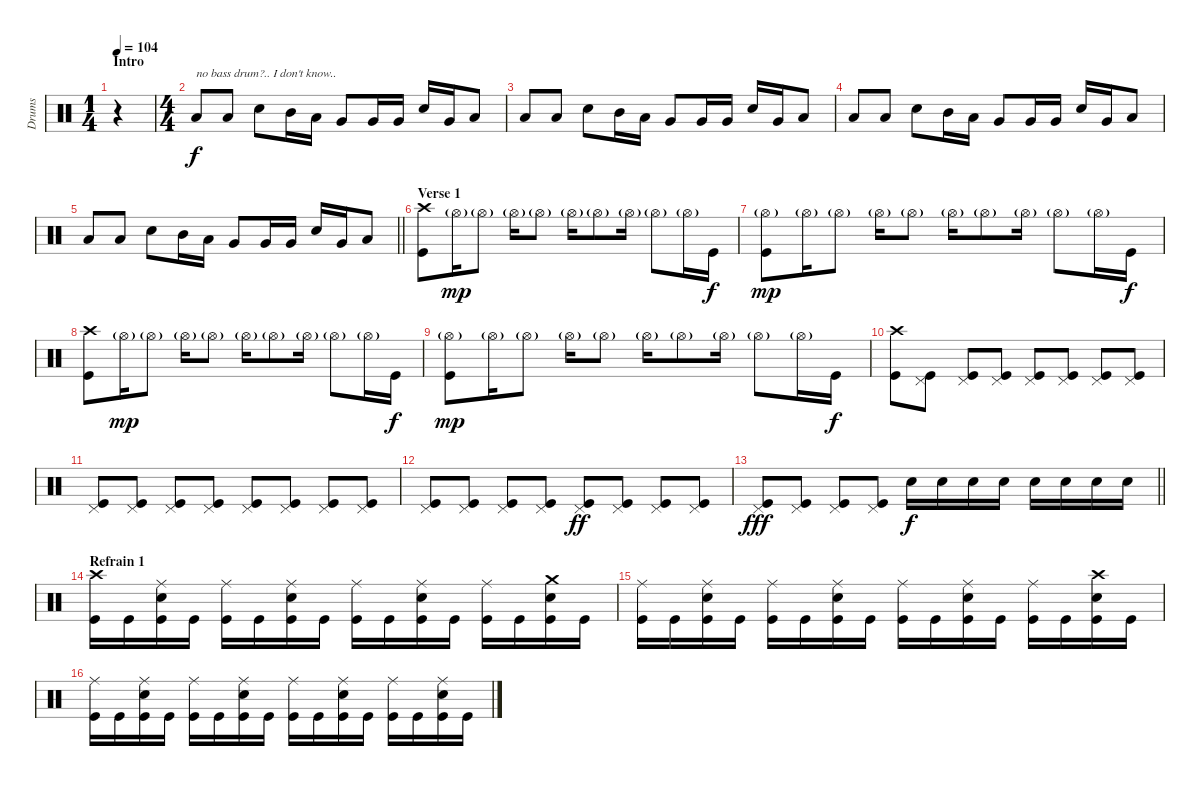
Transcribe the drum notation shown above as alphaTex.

\track ("Drums" "Drums") {instrument percussion}
\staff {score}
\articulation defaults
\ts (1 4)
\section ("" "Intro")
\tempo 104
\clef neutral
\ks c
r.4{dy f} |
\ts (4 4)
"Low Tom (hit)".8{txt "no bass drum?.. I don't know.."} "Low Tom (hit)".8 "Electric Snare (hit)".8 "Mid Tom (hit)".16 "Low Tom (hit)".16 "Very Low Tom (hit)".8 "Very Low Tom (hit)".16 "Very Low Tom (hit)".16 "Electric Snare (hit)".16 "Very Low Tom (hit)".16 "Low Floor Tom (hit)".8 |
"Low Tom (hit)".8 "Low Tom (hit)".8 "Electric Snare (hit)".8 "Mid Tom (hit)".16 "Low Tom (hit)".16 "Very Low Tom (hit)".8 "Very Low Tom (hit)".16 "Very Low Tom (hit)".16 "Electric Snare (hit)".16 "Very Low Tom (hit)".16 "Low Floor Tom (hit)".8 |
"Low Tom (hit)".8 "Low Tom (hit)".8 "Electric Snare (hit)".8 "Mid Tom (hit)".16 "Low Tom (hit)".16 "Very Low Tom (hit)".8 "Very Low Tom (hit)".16 "Very Low Tom (hit)".16 "Electric Snare (hit)".16 "Very Low Tom (hit)".16 "Low Floor Tom (hit)".8 |
\barLineRight lightlight "Low Tom (hit)".8 "Low Tom (hit)".8 "Electric Snare (hit)".8 "Mid Tom (hit)".16 "Low Tom (hit)".16 "Very Low Tom (hit)".8 "Very Low Tom (hit)".16 "Very Low Tom (hit)".16 "Electric Snare (hit)".16 "Very Low Tom (hit)".16 "Low Floor Tom (hit)".8
|
\section ("" "Verse 1")
("Crash high (hit)" "Kick (hit)").8 "Hi-Hat (open)"{g}.16{dy mp} "Hi-Hat (open)"{g}.8 "Hi-Hat (open)"{g}.16 "Hi-Hat (open)"{g}.8 "Hi-Hat (open)"{g}.16 "Hi-Hat (open)"{g}.8 "Hi-Hat (open)"{g}.16 "Hi-Hat (open)"{g}.8 "Hi-Hat (open)"{g}.16 "Kick (hit)".16{dy f} |
("Hi-Hat (open)"{g} "Kick (hit)").8{dy mp} "Hi-Hat (open)"{g}.16 "Hi-Hat (open)"{g}.8 "Hi-Hat (open)"{g}.16 "Hi-Hat (open)"{g}.8 "Hi-Hat (open)"{g}.16 "Hi-Hat (open)"{g}.8 "Hi-Hat (open)"{g}.16 "Hi-Hat (open)"{g}.8 "Hi-Hat (open)"{g}.16 "Kick (hit)".16{dy f} |
("Crash high (hit)" "Kick (hit)").8 "Hi-Hat (open)"{g}.16{dy mp} "Hi-Hat (open)"{g}.8 "Hi-Hat (open)"{g}.16 "Hi-Hat (open)"{g}.8 "Hi-Hat (open)"{g}.16 "Hi-Hat (open)"{g}.8 "Hi-Hat (open)"{g}.16 "Hi-Hat (open)"{g}.8 "Hi-Hat (open)"{g}.16 "Kick (hit)".16{dy f} |
("Hi-Hat (open)"{g} "Kick (hit)").8{dy mp} "Hi-Hat (open)"{g}.16 "Hi-Hat (open)"{g}.8 "Hi-Hat (open)"{g}.16 "Hi-Hat (open)"{g}.8 "Hi-Hat (open)"{g}.16 "Hi-Hat (open)"{g}.8 "Hi-Hat (open)"{g}.16 "Hi-Hat (open)"{g}.8 "Hi-Hat (open)"{g}.16 "Kick (hit)".16{dy f} |
("Crash high (hit)" "Kick (hit)").8 ("Pedal Hi-Hat (hit)" "Kick (hit)").8 ("Pedal Hi-Hat (hit)" "Kick (hit)").8 ("Pedal Hi-Hat (hit)" "Kick (hit)").8 ("Pedal Hi-Hat (hit)" "Kick (hit)").8 ("Pedal Hi-Hat (hit)" "Kick (hit)").8 ("Pedal Hi-Hat (hit)" "Kick (hit)").8 ("Pedal Hi-Hat (hit)" "Kick (hit)").8 |
("Pedal Hi-Hat (hit)" "Kick (hit)").8 ("Pedal Hi-Hat (hit)" "Kick (hit)").8 ("Pedal Hi-Hat (hit)" "Kick (hit)").8 ("Pedal Hi-Hat (hit)" "Kick (hit)").8 ("Pedal Hi-Hat (hit)" "Kick (hit)").8 ("Pedal Hi-Hat (hit)" "Kick (hit)").8 ("Pedal Hi-Hat (hit)" "Kick (hit)").8 ("Pedal Hi-Hat (hit)" "Kick (hit)").8 |
("Pedal Hi-Hat (hit)" "Kick (hit)").8 ("Pedal Hi-Hat (hit)" "Kick (hit)").8 ("Pedal Hi-Hat (hit)" "Kick (hit)").8 ("Pedal Hi-Hat (hit)" "Kick (hit)").8 ("Pedal Hi-Hat (hit)" "Kick (hit)").8{dy ff} ("Pedal Hi-Hat (hit)" "Kick (hit)").8 ("Pedal Hi-Hat (hit)" "Kick (hit)").8 ("Pedal Hi-Hat (hit)" "Kick (hit)").8 |
\barLineRight lightlight
("Pedal Hi-Hat (hit)" "Kick (hit)").8{dy fff} ("Pedal Hi-Hat (hit)" "Kick (hit)").8 ("Pedal Hi-Hat (hit)" "Kick (hit)").8 ("Pedal Hi-Hat (hit)" "Kick (hit)").8 "Electric Snare (hit)".16{dy f} "Electric Snare (hit)".16 "Electric Snare (hit)".16 "Electric Snare (hit)".16 "Electric Snare (hit)".16 "Electric Snare (hit)".16 "Electric Snare (hit)".16 "Electric Snare (hit)".16 |
\section ("" "Refrain 1")
("Crash high (hit)" "Kick (hit)").16 "Kick (hit)".16 ("Ride (middle)" "Electric Snare (hit)" "Kick (hit)").16 "Kick (hit)".16 ("Ride (middle)" "Kick (hit)").16 "Kick (hit)".16 ("Ride (middle)" "Electric Snare (hit)" "Kick (hit)").16 "Kick (hit)".16 ("Ride (middle)" "Kick (hit)").16 "Kick (hit)".16 ("Ride (middle)" "Electric Snare (hit)" "Kick (hit)").16 "Kick (hit)".16 ("Ride (middle)" "Kick (hit)").16 "Kick (hit)".16 ("Crash medium (hit)" "Electric Snare (hit)" "Kick (hit)").16 "Kick (hit)".16 |
("Ride (middle)" "Kick (hit)").16 "Kick (hit)".16 ("Ride (middle)" "Electric Snare (hit)" "Kick (hit)").16 "Kick (hit)".16 ("Ride (middle)" "Kick (hit)").16 "Kick (hit)".16 ("Ride (middle)" "Electric Snare (hit)" "Kick (hit)").16 "Kick (hit)".16 ("Ride (middle)" "Kick (hit)").16 "Kick (hit)".16 ("Ride (middle)" "Electric Snare (hit)" "Kick (hit)").16 "Kick (hit)".16 ("Ride (middle)" "Kick (hit)").16 "Kick (hit)".16 ("Crash high (hit)" "Electric Snare (hit)" "Kick (hit)").16 "Kick (hit)".16 |
("Ride (middle)" "Kick (hit)").16 "Kick (hit)".16 ("Ride (middle)" "Electric Snare (hit)" "Kick (hit)").16 "Kick (hit)".16 ("Ride (middle)" "Kick (hit)").16 "Kick (hit)".16 ("Ride (middle)" "Electric Snare (hit)" "Kick (hit)").16 "Kick (hit)".16 ("Ride (middle)" "Kick (hit)").16 "Kick (hit)".16 ("Ride (middle)" "Electric Snare (hit)" "Kick (hit)").16 "Kick (hit)".16 ("Ride (middle)" "Kick (hit)").16 "Kick (hit)".16 ("Ride (middle)" "Electric Snare (hit)" "Kick (hit)").16 "Kick (hit)".16
